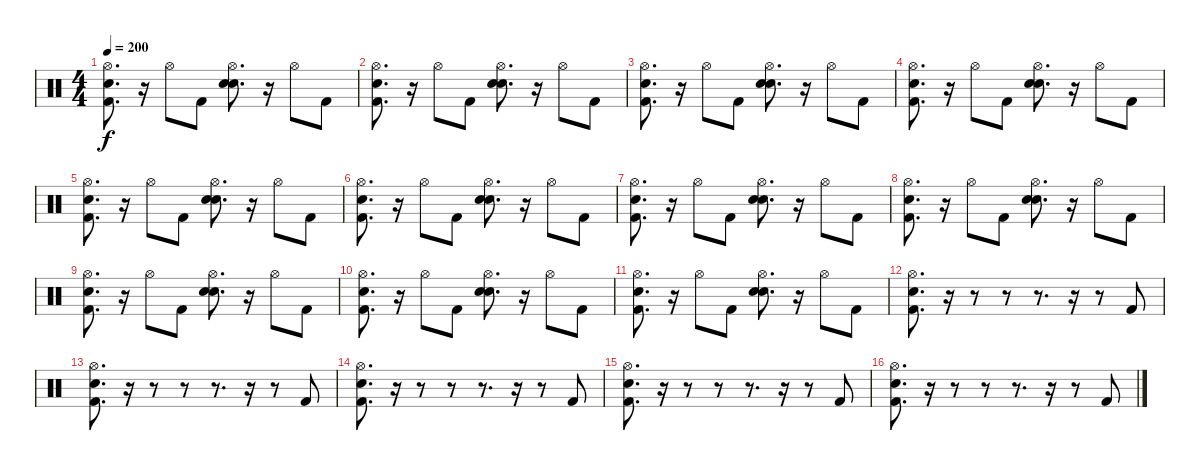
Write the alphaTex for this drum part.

\track "" {instrument percussion}
\staff {score}
\articulation defaults
\ts (4 4)
\tempo 200
\clef neutral
\ks c
("Snare (hit)" "Kick (hit) 2" "Hi-Hat (open)").8{d dy f} r.16 "Hi-Hat (open)".8 "Kick (hit) 2".8 ("Snare (hit)" "Snare (hit) 2" "Hi-Hat (open)").8{d} r.16 "Hi-Hat (open)".8 "Kick (hit) 2".8 |
("Snare (hit)" "Kick (hit) 2" "Hi-Hat (open)").8{d} r.16 "Hi-Hat (open)".8 "Kick (hit) 2".8 ("Snare (hit)" "Snare (hit) 2" "Hi-Hat (open)").8{d} r.16 "Hi-Hat (open)".8 "Kick (hit) 2".8 |
("Snare (hit)" "Kick (hit) 2" "Hi-Hat (open)").8{d} r.16 "Hi-Hat (open)".8 "Kick (hit) 2".8 ("Snare (hit)" "Snare (hit) 2" "Hi-Hat (open)").8{d} r.16 "Hi-Hat (open)".8 "Kick (hit) 2".8 |
("Snare (hit)" "Kick (hit) 2" "Hi-Hat (open)").8{d} r.16 "Hi-Hat (open)".8 "Kick (hit) 2".8 ("Snare (hit)" "Snare (hit) 2" "Hi-Hat (open)").8{d} r.16 "Hi-Hat (open)".8 "Kick (hit) 2".8 |
("Snare (hit)" "Kick (hit) 2" "Hi-Hat (open)").8{d} r.16 "Hi-Hat (open)".8 "Kick (hit) 2".8 ("Snare (hit)" "Snare (hit) 2" "Hi-Hat (open)").8{d} r.16 "Hi-Hat (open)".8 "Kick (hit) 2".8 |
("Snare (hit)" "Kick (hit) 2" "Hi-Hat (open)").8{d} r.16 "Hi-Hat (open)".8 "Kick (hit) 2".8 ("Snare (hit)" "Snare (hit) 2" "Hi-Hat (open)").8{d} r.16 "Hi-Hat (open)".8 "Kick (hit) 2".8 |
("Snare (hit)" "Kick (hit) 2" "Hi-Hat (open)").8{d} r.16 "Hi-Hat (open)".8 "Kick (hit) 2".8 ("Snare (hit)" "Snare (hit) 2" "Hi-Hat (open)").8{d} r.16 "Hi-Hat (open)".8 "Kick (hit) 2".8 |
("Snare (hit)" "Kick (hit) 2" "Hi-Hat (open)").8{d} r.16 "Hi-Hat (open)".8 "Kick (hit) 2".8 ("Snare (hit)" "Snare (hit) 2" "Hi-Hat (open)").8{d} r.16 "Hi-Hat (open)".8 "Kick (hit) 2".8 |
("Snare (hit)" "Kick (hit) 2" "Hi-Hat (open)").8{d} r.16 "Hi-Hat (open)".8 "Kick (hit) 2".8 ("Snare (hit)" "Snare (hit) 2" "Hi-Hat (open)").8{d} r.16 "Hi-Hat (open)".8 "Kick (hit) 2".8 |
("Snare (hit)" "Kick (hit) 2" "Hi-Hat (open)").8{d} r.16 "Hi-Hat (open)".8 "Kick (hit) 2".8 ("Snare (hit)" "Snare (hit) 2" "Hi-Hat (open)").8{d} r.16 "Hi-Hat (open)".8 "Kick (hit) 2".8 |
("Snare (hit)" "Kick (hit) 2" "Hi-Hat (open)").8{d} r.16 "Hi-Hat (open)".8 "Kick (hit) 2".8 ("Snare (hit)" "Snare (hit) 2" "Hi-Hat (open)").8{d} r.16 "Hi-Hat (open)".8 "Kick (hit) 2".8 |
("Snare (hit)" "Kick (hit) 2" "Hi-Hat (open)").8{d} r.16 r.8 r.8 r.8{d} r.16 r.8 "Kick (hit) 2".8 |
("Snare (hit)" "Kick (hit) 2" "Hi-Hat (open)").8{d} r.16 r.8 r.8 r.8{d} r.16 r.8 "Kick (hit) 2".8 |
("Snare (hit)" "Kick (hit) 2" "Hi-Hat (open)").8{d} r.16 r.8 r.8 r.8{d} r.16 r.8 "Kick (hit) 2".8 |
("Snare (hit)" "Kick (hit) 2" "Hi-Hat (open)").8{d} r.16 r.8 r.8 r.8{d} r.16 r.8 "Kick (hit) 2".8 |
("Snare (hit)" "Kick (hit) 2" "Hi-Hat (open)").8{d} r.16 r.8 r.8 r.8{d} r.16 r.8 "Kick (hit) 2".8
